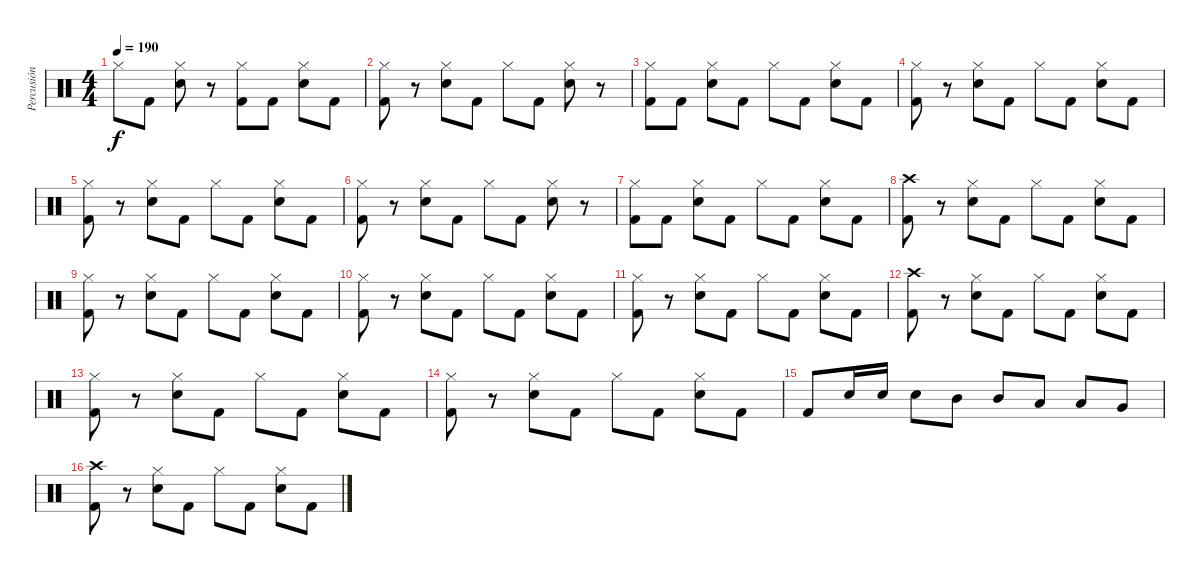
\track ("Percusión" "Percusión") {instrument percussion}
\staff {score}
\articulation defaults
\ts (4 4)
\tempo 190
\clef neutral
\ks c "Hi-Hat (closed)".8{dy f} "Kick (hit) 2".8
("Hi-Hat (closed)" "Snare (hit) 2").8 r.8 ("Hi-Hat (closed)" "Kick (hit) 2").8 "Kick (hit) 2".8 ("Hi-Hat (closed)" "Snare (hit) 2").8 "Kick (hit) 2".8 |
("Hi-Hat (closed)" "Kick (hit) 2").8 r.8 ("Hi-Hat (closed)" "Snare (hit) 2").8 "Kick (hit) 2".8 "Hi-Hat (closed)".8 "Kick (hit) 2".8 ("Hi-Hat (closed)" "Snare (hit) 2").8 r.8 |
("Hi-Hat (closed)" "Kick (hit) 2").8 "Kick (hit) 2".8 ("Hi-Hat (closed)" "Snare (hit) 2").8 "Kick (hit) 2".8 "Hi-Hat (closed)".8 "Kick (hit) 2".8 ("Hi-Hat (closed)" "Snare (hit) 2").8 "Kick (hit) 2".8 |
("Hi-Hat (closed)" "Kick (hit) 2").8 r.8 ("Hi-Hat (closed)" "Snare (hit) 2").8 "Kick (hit) 2".8 "Hi-Hat (closed)".8 "Kick (hit) 2".8 ("Hi-Hat (closed)" "Snare (hit) 2").8 "Kick (hit) 2".8 |
("Hi-Hat (closed)" "Kick (hit) 2").8 r.8 ("Hi-Hat (closed)" "Snare (hit) 2").8 "Kick (hit) 2".8 "Hi-Hat (closed)".8 "Kick (hit) 2".8 ("Hi-Hat (closed)" "Snare (hit) 2").8 "Kick (hit) 2".8 |
("Hi-Hat (closed)" "Kick (hit) 2").8 r.8 ("Hi-Hat (closed)" "Snare (hit) 2").8 "Kick (hit) 2".8 "Hi-Hat (closed)".8 "Kick (hit) 2".8 ("Hi-Hat (closed)" "Snare (hit) 2").8 r.8 |
("Hi-Hat (closed)" "Kick (hit) 2").8 "Kick (hit) 2".8 ("Hi-Hat (closed)" "Snare (hit) 2").8 "Kick (hit) 2".8 "Hi-Hat (closed)".8 "Kick (hit) 2".8 ("Hi-Hat (closed)" "Snare (hit) 2").8 "Kick (hit) 2".8 |
("Crash high (hit)" "Kick (hit) 2").8 r.8 ("Hi-Hat (closed)" "Snare (hit) 2").8 "Kick (hit) 2".8 "Hi-Hat (closed)".8 "Kick (hit) 2".8 ("Hi-Hat (closed)" "Snare (hit) 2").8 "Kick (hit) 2".8 |
("Hi-Hat (closed)" "Kick (hit) 2").8 r.8 ("Hi-Hat (closed)" "Snare (hit) 2").8 "Kick (hit) 2".8 "Hi-Hat (closed)".8 "Kick (hit) 2".8 ("Hi-Hat (closed)" "Snare (hit) 2").8 "Kick (hit) 2".8 |
("Hi-Hat (closed)" "Kick (hit) 2").8 r.8 ("Hi-Hat (closed)" "Snare (hit) 2").8 "Kick (hit) 2".8 "Hi-Hat (closed)".8 "Kick (hit) 2".8 ("Hi-Hat (closed)" "Snare (hit) 2").8 "Kick (hit) 2".8 |
("Hi-Hat (closed)" "Kick (hit) 2").8 r.8 ("Hi-Hat (closed)" "Snare (hit) 2").8 "Kick (hit) 2".8 "Hi-Hat (closed)".8 "Kick (hit) 2".8 ("Hi-Hat (closed)" "Snare (hit) 2").8 "Kick (hit) 2".8 |
("Crash high (hit)" "Kick (hit) 2").8 r.8 ("Hi-Hat (closed)" "Snare (hit) 2").8 "Kick (hit) 2".8 "Hi-Hat (closed)".8 "Kick (hit) 2".8 ("Hi-Hat (closed)" "Snare (hit) 2").8 "Kick (hit) 2".8 |
("Hi-Hat (closed)" "Kick (hit) 2").8 r.8 ("Hi-Hat (closed)" "Snare (hit) 2").8 "Kick (hit) 2".8 "Hi-Hat (closed)".8 "Kick (hit) 2".8 ("Hi-Hat (closed)" "Snare (hit) 2").8 "Kick (hit) 2".8 |
("Hi-Hat (closed)" "Kick (hit) 2").8 r.8 ("Hi-Hat (closed)" "Snare (hit) 2").8 "Kick (hit) 2".8 "Hi-Hat (closed)".8 "Kick (hit) 2".8 ("Hi-Hat (closed)" "Snare (hit) 2").8 "Kick (hit) 2".8 |
"Kick (hit) 2".8 "Snare (hit) 2".16 "Snare (hit) 2".16 "Snare (hit) 2".8 "Mid Tom (hit)".8 "Mid Tom (hit)".8 "Low Tom (hit)".8 "Low Tom (hit)".8 "Very Low Tom (hit)".8 |
("Crash high (hit)" "Kick (hit) 2").8 r.8 ("Hi-Hat (closed)" "Snare (hit) 2").8 "Kick (hit) 2".8 "Hi-Hat (closed)".8 "Kick (hit) 2".8 ("Hi-Hat (closed)" "Snare (hit) 2").8 "Kick (hit) 2".8
